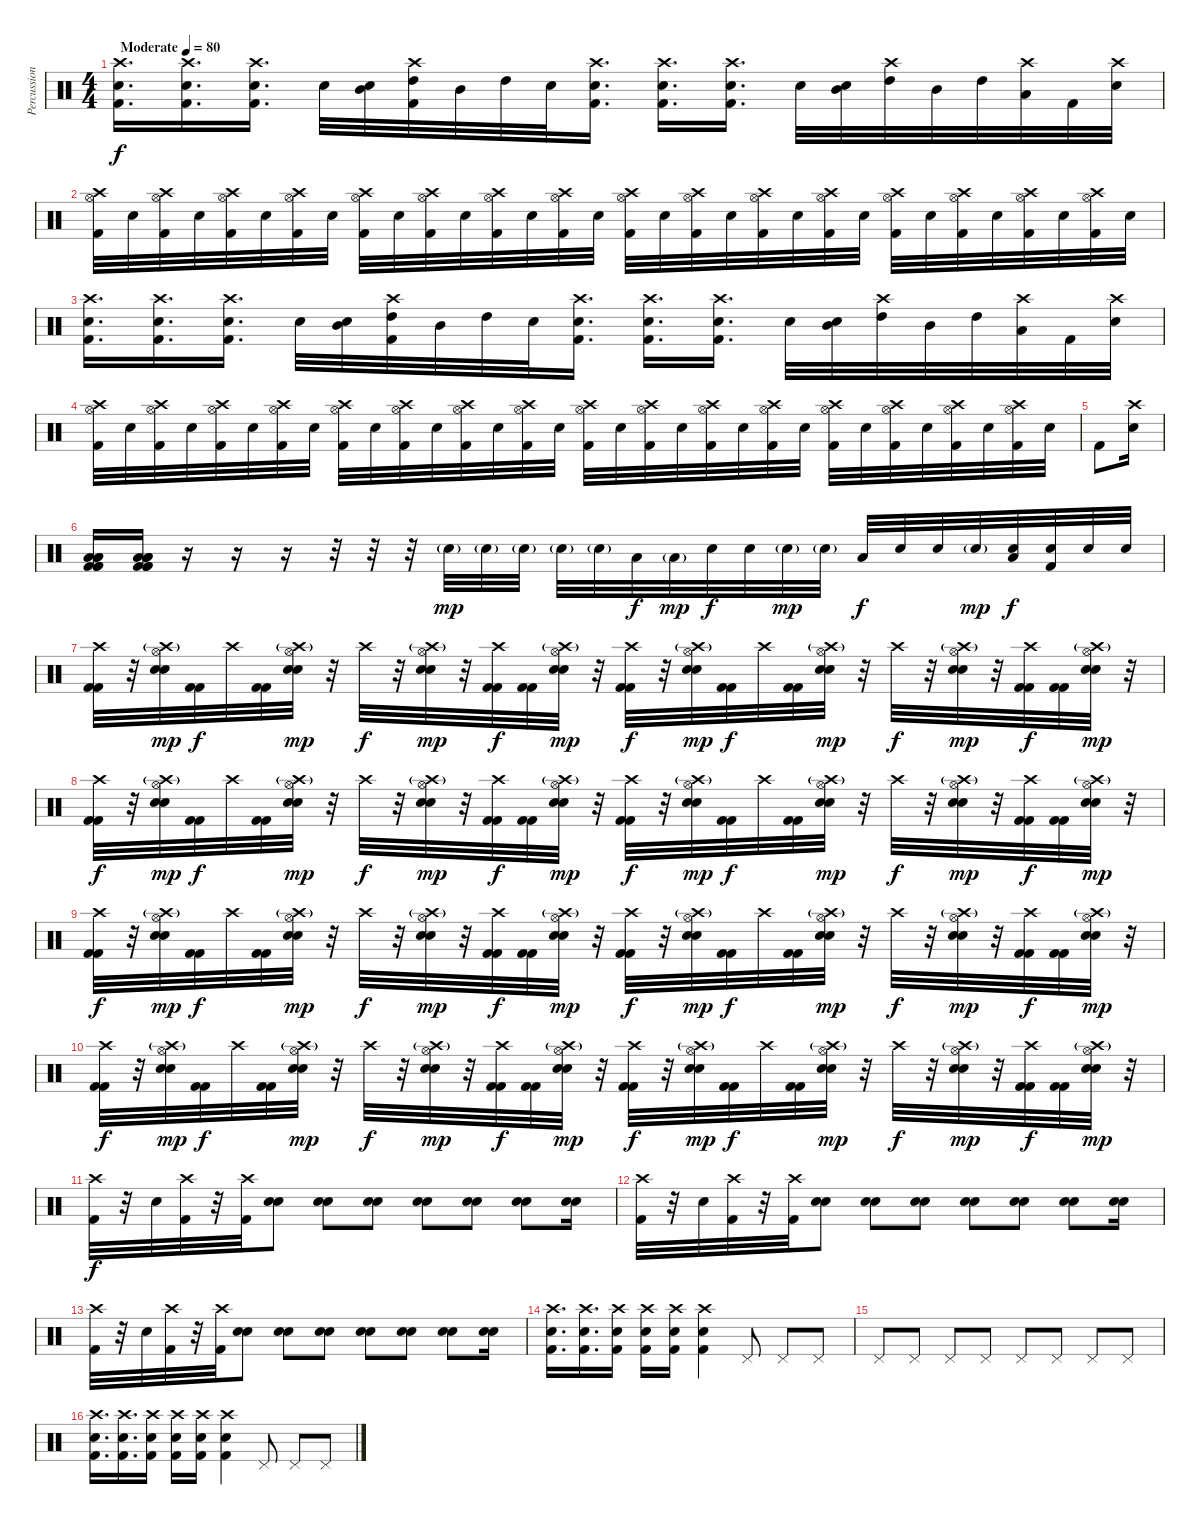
\track ("Percussion" "Percussion") {instrument percussion}
\staff {score}
\articulation defaults
\ts (4 4)
\tempo (80 "Moderate")
\clef neutral
\ks c
("Crash high (hit)" "Electric Snare (hit)" "Kick (hit) 2").16{d dy f} ("Crash high (hit)" "Electric Snare (hit)" "Kick (hit) 2").16{d} ("Crash high (hit)" "Electric Snare (hit)" "Kick (hit) 2").16{d} "Electric Snare (hit)".32 ("Mid Tom (hit)" "Electric Snare (hit)").32 ("Crash high (hit)" "High Tom (hit)" "Kick (hit) 2").32 "Mid Tom (hit)".32 "High Tom (hit)".32 "Electric Snare (hit)".32 ("Crash high (hit)" "Electric Snare (hit)" "Kick (hit) 2").16{d} ("Crash high (hit)" "Electric Snare (hit)" "Kick (hit) 2").16{d} ("Crash high (hit)" "Electric Snare (hit)" "Kick (hit) 2").16{d} "Electric Snare (hit)".32 ("Mid Tom (hit)" "Electric Snare (hit)").32 ("Crash high (hit)" "High Tom (hit)").32 "Mid Tom (hit)".32 "High Tom (hit)".32 ("Crash high (hit)" "Low Floor Tom (hit)").32 "Kick (hit) 2".32 ("Crash high (hit)" "Electric Snare (hit)").32 |
("Crash high (hit)" "Hi-Hat (open)" "Kick (hit) 2").32 "Electric Snare (hit)".32 ("Crash high (hit)" "Hi-Hat (open)" "Kick (hit) 2").32 "Electric Snare (hit)".32 ("Crash high (hit)" "Hi-Hat (open)" "Kick (hit) 2").32 "Electric Snare (hit)".32 ("Crash high (hit)" "Hi-Hat (open)" "Kick (hit) 2").32 "Electric Snare (hit)".32 ("Crash high (hit)" "Hi-Hat (open)" "Kick (hit) 2").32 "Electric Snare (hit)".32 ("Crash high (hit)" "Hi-Hat (open)" "Kick (hit) 2").32 "Electric Snare (hit)".32 ("Crash high (hit)" "Hi-Hat (open)" "Kick (hit) 2").32 "Electric Snare (hit)".32 ("Crash high (hit)" "Hi-Hat (open)" "Kick (hit) 2").32 "Electric Snare (hit)".32 ("Crash high (hit)" "Hi-Hat (open)" "Kick (hit) 2").32 "Electric Snare (hit)".32 ("Crash high (hit)" "Hi-Hat (open)" "Kick (hit) 2").32 "Electric Snare (hit)".32 ("Crash high (hit)" "Hi-Hat (open)" "Kick (hit) 2").32 "Electric Snare (hit)".32 ("Crash high (hit)" "Hi-Hat (open)" "Kick (hit) 2").32 "Electric Snare (hit)".32 ("Crash high (hit)" "Hi-Hat (open)" "Kick (hit) 2").32 "Electric Snare (hit)".32 ("Crash high (hit)" "Hi-Hat (open)" "Kick (hit) 2").32 "Electric Snare (hit)".32 ("Crash high (hit)" "Hi-Hat (open)" "Kick (hit) 2").32 "Electric Snare (hit)".32 ("Crash high (hit)" "Hi-Hat (open)" "Kick (hit) 2").32 "Electric Snare (hit)".32 |
("Crash high (hit)" "Electric Snare (hit)" "Kick (hit) 2").16{d} ("Crash high (hit)" "Electric Snare (hit)" "Kick (hit) 2").16{d} ("Crash high (hit)" "Electric Snare (hit)" "Kick (hit) 2").16{d} "Electric Snare (hit)".32 ("Mid Tom (hit)" "Electric Snare (hit)").32 ("Crash high (hit)" "High Tom (hit)" "Kick (hit) 2").32 "Mid Tom (hit)".32 "High Tom (hit)".32 "Electric Snare (hit)".32 ("Crash high (hit)" "Electric Snare (hit)" "Kick (hit) 2").16{d} ("Crash high (hit)" "Electric Snare (hit)" "Kick (hit) 2").16{d} ("Crash high (hit)" "Electric Snare (hit)" "Kick (hit) 2").16{d} "Electric Snare (hit)".32 ("Mid Tom (hit)" "Electric Snare (hit)").32 ("Crash high (hit)" "High Tom (hit)").32 "Mid Tom (hit)".32 "High Tom (hit)".32 ("Crash high (hit)" "Low Floor Tom (hit)").32 "Kick (hit) 2".32 ("Crash high (hit)" "Electric Snare (hit)").32 |
("Crash high (hit)" "Hi-Hat (open)" "Kick (hit) 2").32 "Electric Snare (hit)".32 ("Crash high (hit)" "Hi-Hat (open)" "Kick (hit) 2").32 "Electric Snare (hit)".32 ("Crash high (hit)" "Hi-Hat (open)" "Kick (hit) 2").32 "Electric Snare (hit)".32 ("Crash high (hit)" "Hi-Hat (open)" "Kick (hit) 2").32 "Electric Snare (hit)".32 ("Crash high (hit)" "Hi-Hat (open)" "Kick (hit) 2").32 "Electric Snare (hit)".32 ("Crash high (hit)" "Hi-Hat (open)" "Kick (hit) 2").32 "Electric Snare (hit)".32 ("Crash high (hit)" "Hi-Hat (open)" "Kick (hit) 2").32 "Electric Snare (hit)".32 ("Crash high (hit)" "Hi-Hat (open)" "Kick (hit) 2").32 "Electric Snare (hit)".32 ("Crash high (hit)" "Hi-Hat (open)" "Kick (hit) 2").32 "Electric Snare (hit)".32 ("Crash high (hit)" "Hi-Hat (open)" "Kick (hit) 2").32 "Electric Snare (hit)".32 ("Crash high (hit)" "Hi-Hat (open)" "Kick (hit) 2").32 "Electric Snare (hit)".32 ("Crash high (hit)" "Hi-Hat (open)" "Kick (hit) 2").32 "Electric Snare (hit)".32 ("Crash high (hit)" "Hi-Hat (open)" "Kick (hit) 2").32 "Electric Snare (hit)".32 ("Crash high (hit)" "Hi-Hat (open)" "Kick (hit) 2").32 "Electric Snare (hit)".32 ("Crash high (hit)" "Hi-Hat (open)" "Kick (hit) 2").32 "Electric Snare (hit)".32 ("Crash high (hit)" "Hi-Hat (open)" "Kick (hit) 2").32 "Electric Snare (hit)".32 |
"Kick (hit) 2".8 ("Crash high (hit)" "Electric Snare (hit)").16 |
("Low Floor Tom (hit)" "Low Floor Tom (hit)" "Low Floor Tom (hit)" "Kick (hit) 2" "Kick (hit) 2" "Kick (hit) 2").16 ("Low Floor Tom (hit)" "Low Floor Tom (hit)" "Low Floor Tom (hit)" "Kick (hit) 2" "Kick (hit) 2" "Kick (hit) 2").16 r.16 r.16 r.16 r.32 r.32 r.32 "Electric Snare (hit)"{g}.32{dy mp} "Electric Snare (hit)"{g}.32 "Electric Snare (hit)"{g}.32 "Electric Snare (hit)"{g}.32 "Electric Snare (hit)"{g}.32 "Low Floor Tom (hit)".32{dy f} "Low Floor Tom (hit)"{g}.32{dy mp} "Electric Snare (hit)".32{dy f} "Electric Snare (hit)".32 "Electric Snare (hit)"{g}.32{dy mp} "Electric Snare (hit)"{g}.32 "Low Floor Tom (hit)".32{dy f} "Electric Snare (hit)".32 "Electric Snare (hit)".32 "Electric Snare (hit)"{g}.32{dy mp} ("Electric Snare (hit)" "Low Floor Tom (hit)").32{dy f} ("Electric Snare (hit)" "Kick (hit) 2").32 "Electric Snare (hit)".32 "Electric Snare (hit)".32 |
("Crash high (hit)" "Kick (hit) 2" "Kick (hit) 2").32 r.32 ("Crash high (hit)"{g} "Hi-Hat (open)" "Electric Snare (hit)" "Electric Snare (hit)").32{dy mp} ("Kick (hit) 2" "Kick (hit) 2").32{dy f} "Crash high (hit)".32 ("Kick (hit) 2" "Kick (hit) 2").32 ("Crash high (hit)"{g} "Hi-Hat (open)" "Electric Snare (hit)" "Electric Snare (hit)").32{dy mp} r.32 "Crash high (hit)".32{dy f} r.32 ("Crash high (hit)"{g} "Hi-Hat (open)" "Electric Snare (hit)" "Electric Snare (hit)").32{dy mp} r.32 ("Crash high (hit)" "Kick (hit) 2" "Kick (hit) 2").32{dy f} ("Kick (hit) 2" "Kick (hit) 2").32 ("Crash high (hit)"{g} "Hi-Hat (open)" "Electric Snare (hit)" "Electric Snare (hit)").32{dy mp} r.32 ("Crash high (hit)" "Kick (hit) 2" "Kick (hit) 2").32{dy f} r.32 ("Crash high (hit)"{g} "Hi-Hat (open)" "Electric Snare (hit)" "Electric Snare (hit)").32{dy mp} ("Kick (hit) 2" "Kick (hit) 2").32{dy f} "Crash high (hit)".32 ("Kick (hit) 2" "Kick (hit) 2").32 ("Crash high (hit)"{g} "Hi-Hat (open)" "Electric Snare (hit)" "Electric Snare (hit)").32{dy mp} r.32 "Crash high (hit)".32{dy f} r.32 ("Crash high (hit)"{g} "Hi-Hat (open)" "Electric Snare (hit)" "Electric Snare (hit)").32{dy mp} r.32 ("Crash high (hit)" "Kick (hit) 2" "Kick (hit) 2").32{dy f} ("Kick (hit) 2" "Kick (hit) 2").32 ("Crash high (hit)"{g} "Hi-Hat (open)" "Electric Snare (hit)" "Electric Snare (hit)").32{dy mp} r.32 |
("Crash high (hit)" "Kick (hit) 2" "Kick (hit) 2").32{dy f} r.32 ("Crash high (hit)"{g} "Hi-Hat (open)" "Electric Snare (hit)" "Electric Snare (hit)").32{dy mp} ("Kick (hit) 2" "Kick (hit) 2").32{dy f} "Crash high (hit)".32 ("Kick (hit) 2" "Kick (hit) 2").32 ("Crash high (hit)"{g} "Hi-Hat (open)" "Electric Snare (hit)" "Electric Snare (hit)").32{dy mp} r.32 "Crash high (hit)".32{dy f} r.32 ("Crash high (hit)"{g} "Hi-Hat (open)" "Electric Snare (hit)" "Electric Snare (hit)").32{dy mp} r.32 ("Crash high (hit)" "Kick (hit) 2" "Kick (hit) 2").32{dy f} ("Kick (hit) 2" "Kick (hit) 2").32 ("Crash high (hit)"{g} "Hi-Hat (open)" "Electric Snare (hit)" "Electric Snare (hit)").32{dy mp} r.32 ("Crash high (hit)" "Kick (hit) 2" "Kick (hit) 2").32{dy f} r.32 ("Crash high (hit)"{g} "Hi-Hat (open)" "Electric Snare (hit)" "Electric Snare (hit)").32{dy mp} ("Kick (hit) 2" "Kick (hit) 2").32{dy f} "Crash high (hit)".32 ("Kick (hit) 2" "Kick (hit) 2").32 ("Crash high (hit)"{g} "Hi-Hat (open)" "Electric Snare (hit)" "Electric Snare (hit)").32{dy mp} r.32 "Crash high (hit)".32{dy f} r.32 ("Crash high (hit)"{g} "Hi-Hat (open)" "Electric Snare (hit)" "Electric Snare (hit)").32{dy mp} r.32 ("Crash high (hit)" "Kick (hit) 2" "Kick (hit) 2").32{dy f} ("Kick (hit) 2" "Kick (hit) 2").32 ("Crash high (hit)"{g} "Hi-Hat (open)" "Electric Snare (hit)" "Electric Snare (hit)").32{dy mp} r.32 |
("Crash high (hit)" "Kick (hit) 2" "Kick (hit) 2").32{dy f} r.32 ("Crash high (hit)"{g} "Hi-Hat (open)" "Electric Snare (hit)" "Electric Snare (hit)").32{dy mp} ("Kick (hit) 2" "Kick (hit) 2").32{dy f} "Crash high (hit)".32 ("Kick (hit) 2" "Kick (hit) 2").32 ("Crash high (hit)"{g} "Hi-Hat (open)" "Electric Snare (hit)" "Electric Snare (hit)").32{dy mp} r.32 "Crash high (hit)".32{dy f} r.32 ("Crash high (hit)"{g} "Hi-Hat (open)" "Electric Snare (hit)" "Electric Snare (hit)").32{dy mp} r.32 ("Crash high (hit)" "Kick (hit) 2" "Kick (hit) 2").32{dy f} ("Kick (hit) 2" "Kick (hit) 2").32 ("Crash high (hit)"{g} "Hi-Hat (open)" "Electric Snare (hit)" "Electric Snare (hit)").32{dy mp} r.32 ("Crash high (hit)" "Kick (hit) 2" "Kick (hit) 2").32{dy f} r.32 ("Crash high (hit)"{g} "Hi-Hat (open)" "Electric Snare (hit)" "Electric Snare (hit)").32{dy mp} ("Kick (hit) 2" "Kick (hit) 2").32{dy f} "Crash high (hit)".32 ("Kick (hit) 2" "Kick (hit) 2").32 ("Crash high (hit)"{g} "Hi-Hat (open)" "Electric Snare (hit)" "Electric Snare (hit)").32{dy mp} r.32 "Crash high (hit)".32{dy f} r.32 ("Crash high (hit)"{g} "Hi-Hat (open)" "Electric Snare (hit)" "Electric Snare (hit)").32{dy mp} r.32 ("Crash high (hit)" "Kick (hit) 2" "Kick (hit) 2").32{dy f} ("Kick (hit) 2" "Kick (hit) 2").32 ("Crash high (hit)"{g} "Hi-Hat (open)" "Electric Snare (hit)" "Electric Snare (hit)").32{dy mp} r.32 |
("Crash high (hit)" "Kick (hit) 2" "Kick (hit) 2").32{dy f} r.32 ("Crash high (hit)"{g} "Hi-Hat (open)" "Electric Snare (hit)" "Electric Snare (hit)").32{dy mp} ("Kick (hit) 2" "Kick (hit) 2").32{dy f} "Crash high (hit)".32 ("Kick (hit) 2" "Kick (hit) 2").32 ("Crash high (hit)"{g} "Hi-Hat (open)" "Electric Snare (hit)" "Electric Snare (hit)").32{dy mp} r.32 "Crash high (hit)".32{dy f} r.32 ("Crash high (hit)"{g} "Hi-Hat (open)" "Electric Snare (hit)" "Electric Snare (hit)").32{dy mp} r.32 ("Crash high (hit)" "Kick (hit) 2" "Kick (hit) 2").32{dy f} ("Kick (hit) 2" "Kick (hit) 2").32 ("Crash high (hit)"{g} "Hi-Hat (open)" "Electric Snare (hit)" "Electric Snare (hit)").32{dy mp} r.32 ("Crash high (hit)" "Kick (hit) 2" "Kick (hit) 2").32{dy f} r.32 ("Crash high (hit)"{g} "Hi-Hat (open)" "Electric Snare (hit)" "Electric Snare (hit)").32{dy mp} ("Kick (hit) 2" "Kick (hit) 2").32{dy f} "Crash high (hit)".32 ("Kick (hit) 2" "Kick (hit) 2").32 ("Crash high (hit)"{g} "Hi-Hat (open)" "Electric Snare (hit)" "Electric Snare (hit)").32{dy mp} r.32 "Crash high (hit)".32{dy f} r.32 ("Crash high (hit)"{g} "Hi-Hat (open)" "Electric Snare (hit)" "Electric Snare (hit)").32{dy mp} r.32 ("Crash high (hit)" "Kick (hit) 2" "Kick (hit) 2").32{dy f} ("Kick (hit) 2" "Kick (hit) 2").32 ("Crash high (hit)"{g} "Hi-Hat (open)" "Electric Snare (hit)" "Electric Snare (hit)").32{dy mp} r.32 |
("Crash high (hit)" "Kick (hit) 2").32{dy f} r.32 "Electric Snare (hit)".32 ("Crash high (hit)" "Kick (hit) 2").32 r.32 ("Crash high (hit)" "Kick (hit) 2").32 ("Electric Snare (hit)" "Electric Snare (hit)").8 ("Electric Snare (hit)" "Electric Snare (hit)").8 ("Electric Snare (hit)" "Electric Snare (hit)").8 ("Electric Snare (hit)" "Electric Snare (hit)").8 ("Electric Snare (hit)" "Electric Snare (hit)").8 ("Electric Snare (hit)" "Electric Snare (hit)").8 ("Electric Snare (hit)" "Electric Snare (hit)").16 |
("Crash high (hit)" "Kick (hit) 2").32 r.32 "Electric Snare (hit)".32 ("Crash high (hit)" "Kick (hit) 2").32 r.32 ("Crash high (hit)" "Kick (hit) 2").32 ("Electric Snare (hit)" "Electric Snare (hit)").8 ("Electric Snare (hit)" "Electric Snare (hit)").8 ("Electric Snare (hit)" "Electric Snare (hit)").8 ("Electric Snare (hit)" "Electric Snare (hit)").8 ("Electric Snare (hit)" "Electric Snare (hit)").8 ("Electric Snare (hit)" "Electric Snare (hit)").8 ("Electric Snare (hit)" "Electric Snare (hit)").16 |
("Crash high (hit)" "Kick (hit) 2").32 r.32 "Electric Snare (hit)".32 ("Crash high (hit)" "Kick (hit) 2").32 r.32 ("Crash high (hit)" "Kick (hit) 2").32 ("Electric Snare (hit)" "Electric Snare (hit)").8 ("Electric Snare (hit)" "Electric Snare (hit)").8 ("Electric Snare (hit)" "Electric Snare (hit)").8 ("Electric Snare (hit)" "Electric Snare (hit)").8 ("Electric Snare (hit)" "Electric Snare (hit)").8 ("Electric Snare (hit)" "Electric Snare (hit)").8 ("Electric Snare (hit)" "Electric Snare (hit)").16 |
("Crash high (hit)" "Electric Snare (hit)" "Kick (hit) 2").16{d} ("Crash high (hit)" "Electric Snare (hit)" "Kick (hit) 2").16{d} ("Crash high (hit)" "Electric Snare (hit)" "Kick (hit) 2").16 ("Crash high (hit)" "Electric Snare (hit)" "Kick (hit) 2").16 ("Crash high (hit)" "Electric Snare (hit)" "Kick (hit) 2").16 ("Crash high (hit)" "Electric Snare (hit)" "Kick (hit) 2").4 "Pedal Hi-Hat (hit)".8 "Pedal Hi-Hat (hit)".8 "Pedal Hi-Hat (hit)".8 |
"Pedal Hi-Hat (hit)".8 "Pedal Hi-Hat (hit)".8 "Pedal Hi-Hat (hit)".8 "Pedal Hi-Hat (hit)".8 "Pedal Hi-Hat (hit)".8 "Pedal Hi-Hat (hit)".8 "Pedal Hi-Hat (hit)".8 "Pedal Hi-Hat (hit)".8 |
("Crash high (hit)" "Electric Snare (hit)" "Kick (hit) 2").16{d} ("Crash high (hit)" "Electric Snare (hit)" "Kick (hit) 2").16{d} ("Crash high (hit)" "Electric Snare (hit)" "Kick (hit) 2").16 ("Crash high (hit)" "Electric Snare (hit)" "Kick (hit) 2").16 ("Crash high (hit)" "Electric Snare (hit)" "Kick (hit) 2").16 ("Crash high (hit)" "Electric Snare (hit)" "Kick (hit) 2").4 "Pedal Hi-Hat (hit)".8 "Pedal Hi-Hat (hit)".8 "Pedal Hi-Hat (hit)".8
